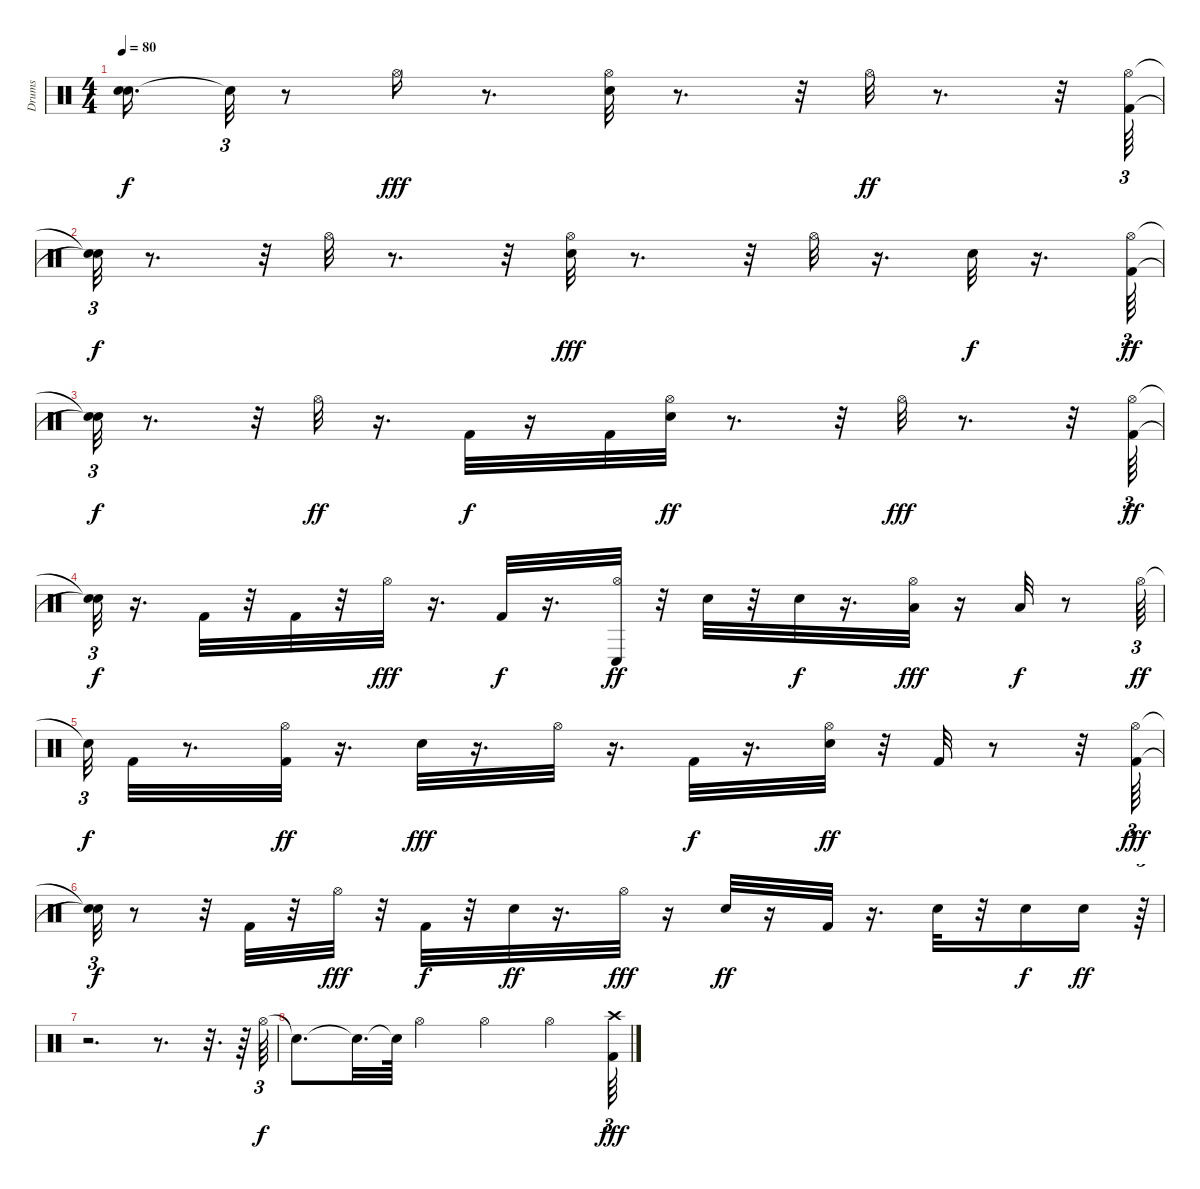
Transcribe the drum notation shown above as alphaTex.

\track ("Drums" "Drums") {instrument percussion}
\staff {score}
\articulation defaults
\ts (4 4)
\tempo 80
\clef neutral
\ks c
("Snare (hit)"{t} "Snare (hit)"{t}).16{d dy f} "Snare (hit)"{t}.32{tu (3 2)} r.8 "Hi-Hat (open)".16{dy fff} r.8{d} ("Electric Snare (hit)" "Hi-Hat (open)").32 r.8{d} r.32 "Hi-Hat (open)".32{dy ff} r.8{d} r.32 ("Hi-Hat (open)" "Kick (hit) 2").64{tu (3 2)} |
("Snare (hit)"{t} "Snare (hit)"{t}).32{tu (3 2) dy f} r.8{d} r.32 "Hi-Hat (open)".32 r.8{d} r.32 ("Electric Snare (hit)" "Hi-Hat (open)").32{dy fff} r.8{d} r.32 "Hi-Hat (open)".32 r.16{d} "Electric Snare (hit)".32{dy f} r.16{d} ("Hi-Hat (open)" "Kick (hit) 2").64{tu (3 2) dy ff} |
("Snare (hit)"{t} "Snare (hit)"{t}).32{tu (3 2) dy f} r.8{d} r.32 "Hi-Hat (open)".32{dy ff} r.16{d} "Kick (hit) 2".32{dy f} r.16 "Kick (hit) 2".32 ("Electric Snare (hit)" "Hi-Hat (open)").32{dy ff} r.8{d} r.32 "Hi-Hat (open)".32{dy fff} r.8{d} r.32 ("Hi-Hat (open)" "Kick (hit) 2").64{tu (3 2) dy ff} |
("Snare (hit)"{t} "Snare (hit)"{t}).32{tu (3 2) dy f} r.16{d} "Kick (hit) 2".32 r.32 "Kick (hit) 2".32 r.32 "Hi-Hat (open)".32{dy fff} r.16{d} "Kick (hit) 2".32{dy f} r.16{d} ("Hi-Hat (open)" "Conga low (hit)").32{dy ff} r.32 "Electric Snare (hit)".32 r.32 "Electric Snare (hit)".32{dy f} r.16{d} ("Low Tom (hit)" "Hi-Hat (open)").32{dy fff} r.16 "Low Tom (hit)".32{dy f} r.8 "Hi-Hat (open)".64{tu (3 2) dy ff} |
"Snare (hit)"{t}.32{tu (3 2) dy f} "Kick (hit) 2".32 r.8{d} ("Kick (hit) 2" "Hi-Hat (open)").32{dy ff} r.16{d} "Electric Snare (hit)".32{dy fff} r.16{d} "Hi-Hat (open)".32 r.16{d} "Kick (hit) 2".32{dy f} r.16{d} ("Electric Snare (hit)" "Hi-Hat (open)").32{dy ff} r.32 "Kick (hit) 2".32 r.8 r.32 ("Kick (hit) 2" "Hi-Hat (open)").64{tu (3 2) dy fff} |
("Snare (hit)"{t} "Snare (hit)"{t}).32{tu (3 2) dy f} r.8 r.32 "Kick (hit) 2".32 r.32 "Hi-Hat (open)".32{dy fff} r.32 "Kick (hit) 2".32{dy f} r.32 "Electric Snare (hit)".32{dy ff} r.16{d} "Hi-Hat (open)".32{dy fff} r.16 "Electric Snare (hit)".32{dy ff} r.16 "Kick (hit) 2".32 r.16{d} "Electric Snare (hit)".32 r.32 "Electric Snare (hit)".16{dy f} "Electric Snare (hit)".16{dy ff} r.64{tu (3 2)} |
r.2{d} r.8{d} r.32{d} r.64 "Hi-Hat (open)".64{tu (3 2) dy f} |
"Snare (hit)"{t}.8{d} "Snare (hit)"{t}.32{d} "Snare (hit)"{t}.64 "Hi-Hat (open)".4 "Hi-Hat (open)".4 "Hi-Hat (open)".4 ("Crash high (hit)" "Kick (hit) 2").64{tu (3 2) dy fff}
